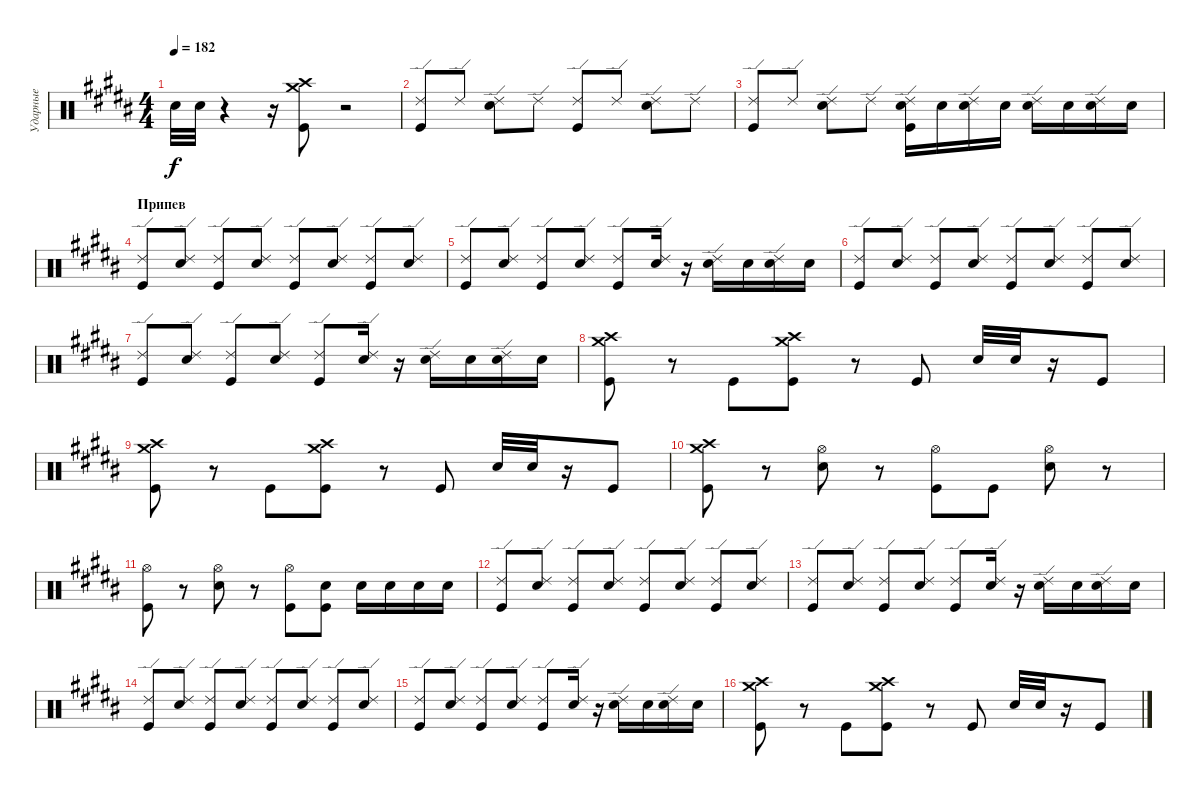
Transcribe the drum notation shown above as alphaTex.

\track ("Ударные" "Ударные") {instrument percussion}
\staff {score}
\articulation defaults
\ts (4 4)
\tempo 182
\clef neutral
\ks b "Electric Snare (hit)".32{dy f} "Electric Snare (hit)".32
r.4 r.16 ("Kick (hit)" "Crash high (hit)" "Crash medium (hit)").8 r.2 |
("Kick (hit)" "Ride (edge) 2").8 "Ride (edge) 2".8 ("Electric Snare (hit)" "Ride (edge) 2").8 "Ride (edge) 2".8 ("Kick (hit)" "Ride (edge) 2").8 "Ride (edge) 2".8 ("Electric Snare (hit)" "Ride (edge) 2").8 "Ride (edge) 2".8 |
("Kick (hit)" "Ride (edge) 2").8 "Ride (edge) 2".8 ("Electric Snare (hit)" "Ride (edge) 2").8 "Ride (edge) 2".8 ("Electric Snare (hit)" "Kick (hit)" "Ride (edge) 2").16 "Electric Snare (hit)".16 ("Electric Snare (hit)" "Ride (edge) 2").16 "Electric Snare (hit)".16 ("Electric Snare (hit)" "Ride (edge) 2").16 "Electric Snare (hit)".16 ("Electric Snare (hit)" "Ride (edge) 2").16 "Electric Snare (hit)".16 |
\section ("" "Припев")
("Kick (hit)" "Ride (edge) 2").8 ("Electric Snare (hit)" "Ride (edge) 2").8 ("Kick (hit)" "Ride (edge) 2").8 ("Electric Snare (hit)" "Ride (edge) 2").8 ("Kick (hit)" "Ride (edge) 2").8 ("Electric Snare (hit)" "Ride (edge) 2").8 ("Kick (hit)" "Ride (edge) 2").8 ("Electric Snare (hit)" "Ride (edge) 2").8 |
("Ride (edge) 2" "Kick (hit)").8 ("Ride (edge) 2" "Electric Snare (hit)").8 ("Ride (edge) 2" "Kick (hit)").8 ("Ride (edge) 2" "Electric Snare (hit)").8 ("Ride (edge) 2" "Kick (hit)").8 ("Ride (edge) 2" "Electric Snare (hit)").16 r.16 ("Ride (edge) 2" "Electric Snare (hit)").16 "Electric Snare (hit)".16 ("Ride (edge) 2" "Electric Snare (hit)").16 "Electric Snare (hit)".16 |
("Kick (hit)" "Ride (edge) 2").8 ("Electric Snare (hit)" "Ride (edge) 2").8 ("Kick (hit)" "Ride (edge) 2").8 ("Electric Snare (hit)" "Ride (edge) 2").8 ("Kick (hit)" "Ride (edge) 2").8 ("Electric Snare (hit)" "Ride (edge) 2").8 ("Kick (hit)" "Ride (edge) 2").8 ("Electric Snare (hit)" "Ride (edge) 2").8 |
("Ride (edge) 2" "Kick (hit)").8 ("Ride (edge) 2" "Electric Snare (hit)").8 ("Ride (edge) 2" "Kick (hit)").8 ("Ride (edge) 2" "Electric Snare (hit)").8 ("Ride (edge) 2" "Kick (hit)").8 ("Ride (edge) 2" "Electric Snare (hit)").16 r.16 ("Ride (edge) 2" "Electric Snare (hit)").16 "Electric Snare (hit)".16 ("Ride (edge) 2" "Electric Snare (hit)").16 "Electric Snare (hit)".16 |
("Kick (hit)" "Crash medium (hit)" "Crash high (hit)").8 r.8 "Kick (hit)".8 ("Kick (hit)" "Crash medium (hit)" "Crash high (hit)").8 r.8 "Kick (hit)".8 "Electric Snare (hit)".32 "Electric Snare (hit)".32 r.16 "Kick (hit)".8 |
("Kick (hit)" "Crash high (hit)" "Crash medium (hit)").8 r.8 "Kick (hit)".8 ("Kick (hit)" "Crash high (hit)" "Crash medium (hit)").8 r.8 "Kick (hit)".8 "Electric Snare (hit)".32 "Electric Snare (hit)".32 r.16 "Kick (hit)".8 |
("Crash medium (hit)" "Crash high (hit)" "Kick (hit)").8 r.8 ("Electric Snare (hit)" "Hi-Hat (open)").8 r.8 ("Kick (hit)" "Hi-Hat (open)").8 "Kick (hit)".8 ("Electric Snare (hit)" "Hi-Hat (open)").8 r.8 |
("Hi-Hat (open)" "Kick (hit)").8 r.8 ("Hi-Hat (open)" "Electric Snare (hit)").8 r.8 ("Kick (hit)" "Hi-Hat (open)").8 ("Electric Snare (hit)" "Kick (hit)").8 "Electric Snare (hit)".16 "Electric Snare (hit)".16 "Electric Snare (hit)".16 "Electric Snare (hit)".16 |
("Kick (hit)" "Ride (edge) 2").8 ("Electric Snare (hit)" "Ride (edge) 2").8 ("Kick (hit)" "Ride (edge) 2").8 ("Electric Snare (hit)" "Ride (edge) 2").8 ("Kick (hit)" "Ride (edge) 2").8 ("Electric Snare (hit)" "Ride (edge) 2").8 ("Kick (hit)" "Ride (edge) 2").8 ("Electric Snare (hit)" "Ride (edge) 2").8 |
("Ride (edge) 2" "Kick (hit)").8 ("Ride (edge) 2" "Electric Snare (hit)").8 ("Ride (edge) 2" "Kick (hit)").8 ("Ride (edge) 2" "Electric Snare (hit)").8 ("Ride (edge) 2" "Kick (hit)").8 ("Ride (edge) 2" "Electric Snare (hit)").16 r.16 ("Ride (edge) 2" "Electric Snare (hit)").16 "Electric Snare (hit)".16 ("Ride (edge) 2" "Electric Snare (hit)").16 "Electric Snare (hit)".16 |
("Kick (hit)" "Ride (edge) 2").8 ("Electric Snare (hit)" "Ride (edge) 2").8 ("Kick (hit)" "Ride (edge) 2").8 ("Electric Snare (hit)" "Ride (edge) 2").8 ("Kick (hit)" "Ride (edge) 2").8 ("Electric Snare (hit)" "Ride (edge) 2").8 ("Kick (hit)" "Ride (edge) 2").8 ("Electric Snare (hit)" "Ride (edge) 2").8 |
("Ride (edge) 2" "Kick (hit)").8 ("Ride (edge) 2" "Electric Snare (hit)").8 ("Ride (edge) 2" "Kick (hit)").8 ("Ride (edge) 2" "Electric Snare (hit)").8 ("Ride (edge) 2" "Kick (hit)").8 ("Ride (edge) 2" "Electric Snare (hit)").16 r.16 ("Ride (edge) 2" "Electric Snare (hit)").16 "Electric Snare (hit)".16 ("Ride (edge) 2" "Electric Snare (hit)").16 "Electric Snare (hit)".16 |
("Kick (hit)" "Crash medium (hit)" "Crash high (hit)").8 r.8 "Kick (hit)".8 ("Kick (hit)" "Crash medium (hit)" "Crash high (hit)").8 r.8 "Kick (hit)".8 "Electric Snare (hit)".32 "Electric Snare (hit)".32 r.16 "Kick (hit)".8
